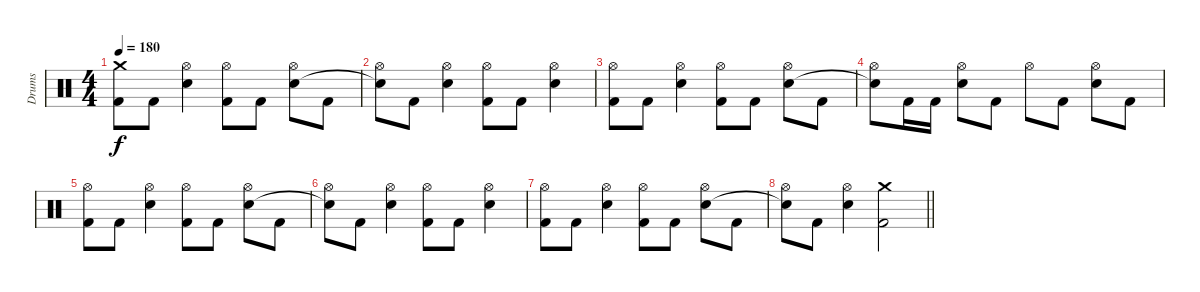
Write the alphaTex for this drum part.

\track ("Drums" "Drums") {instrument percussion}
\staff {score}
\articulation defaults
\ts (4 4)
\tempo 180
\clef neutral
\ks c
("Crash medium (hit)" "Kick (hit) 2").8{dy f} "Kick (hit) 2".8 ("Hi-Hat (open)" "Snare (hit) 2").4 ("Hi-Hat (open)" "Kick (hit) 2").8 "Kick (hit) 2".8 ("Hi-Hat (open)" "Snare (hit) 2").8 "Kick (hit) 2".8 |
("Hi-Hat (open)" "Snare (hit)"{t}).8 "Kick (hit) 2".8 ("Hi-Hat (open)" "Snare (hit) 2").4 ("Hi-Hat (open)" "Kick (hit) 2").8 "Kick (hit) 2".8 ("Hi-Hat (open)" "Snare (hit) 2").4 |
("Hi-Hat (open)" "Kick (hit) 2").8 "Kick (hit) 2".8 ("Hi-Hat (open)" "Snare (hit) 2").4 ("Hi-Hat (open)" "Kick (hit) 2").8 "Kick (hit) 2".8 ("Hi-Hat (open)" "Snare (hit) 2").8 "Kick (hit) 2".8 |
("Hi-Hat (open)" "Snare (hit)"{t}).8 "Kick (hit) 2".16 "Kick (hit) 2".16 ("Hi-Hat (open)" "Snare (hit) 2").8 "Kick (hit) 2".8 "Hi-Hat (open)".8 "Kick (hit) 2".8 ("Hi-Hat (open)" "Snare (hit) 2").8 "Kick (hit) 2".8 |
("Hi-Hat (open)" "Kick (hit) 2").8 "Kick (hit) 2".8 ("Hi-Hat (open)" "Snare (hit) 2").4 ("Hi-Hat (open)" "Kick (hit) 2").8 "Kick (hit) 2".8 ("Hi-Hat (open)" "Snare (hit) 2").8 "Kick (hit) 2".8 |
("Hi-Hat (open)" "Snare (hit)"{t}).8 "Kick (hit) 2".8 ("Hi-Hat (open)" "Snare (hit) 2").4 ("Hi-Hat (open)" "Kick (hit) 2").8 "Kick (hit) 2".8 ("Hi-Hat (open)" "Snare (hit) 2").4 |
("Hi-Hat (open)" "Kick (hit) 2").8 "Kick (hit) 2".8 ("Hi-Hat (open)" "Snare (hit) 2").4 ("Hi-Hat (open)" "Kick (hit) 2").8 "Kick (hit) 2".8 ("Hi-Hat (open)" "Snare (hit) 2").8 "Kick (hit) 2".8 |
\barLineRight lightlight
("Hi-Hat (open)" "Snare (hit)"{t}).8 "Kick (hit) 2".8 ("Hi-Hat (open)" "Snare (hit) 2").4 ("Crash medium (hit)" "Kick (hit) 2").2
